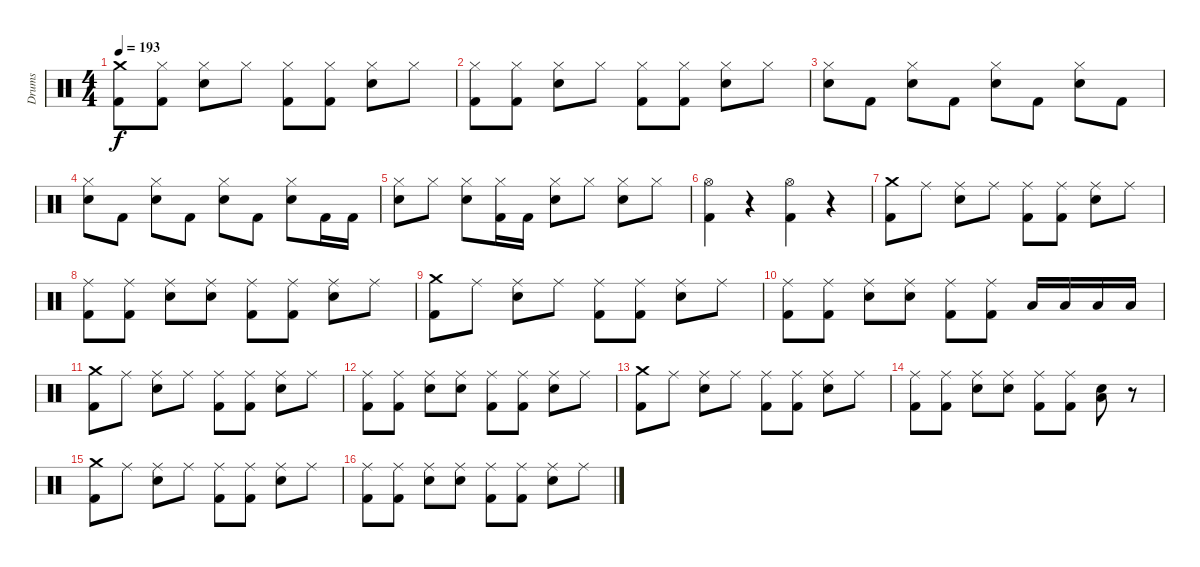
\track ("Drums" "Drums") {instrument percussion}
\staff {score}
\articulation defaults
\ts (4 4)
\tempo 193
\clef neutral
\ks c
("Crash medium (hit)" "Kick (hit) 2").8{dy f} ("Hi-Hat (closed)" "Kick (hit) 2").8 ("Hi-Hat (closed)" "Snare (hit) 2").8 "Hi-Hat (closed)".8 ("Hi-Hat (closed)" "Kick (hit) 2").8 ("Hi-Hat (closed)" "Kick (hit) 2").8 ("Hi-Hat (closed)" "Snare (hit) 2").8 "Hi-Hat (closed)".8 |
("Hi-Hat (closed)" "Kick (hit) 2").8 ("Hi-Hat (closed)" "Kick (hit) 2").8 ("Hi-Hat (closed)" "Snare (hit) 2").8 "Hi-Hat (closed)".8 ("Hi-Hat (closed)" "Kick (hit) 2").8 ("Hi-Hat (closed)" "Kick (hit) 2").8 ("Hi-Hat (closed)" "Snare (hit) 2").8 "Hi-Hat (closed)".8 |
("Hi-Hat (closed)" "Snare (hit) 2").8 "Kick (hit) 2".8 ("Hi-Hat (closed)" "Snare (hit) 2").8 "Kick (hit) 2".8 ("Hi-Hat (closed)" "Snare (hit) 2").8 "Kick (hit) 2".8 ("Hi-Hat (closed)" "Snare (hit) 2").8 "Kick (hit) 2".8 |
("Hi-Hat (closed)" "Snare (hit) 2").8 "Kick (hit) 2".8 ("Hi-Hat (closed)" "Snare (hit) 2").8 "Kick (hit) 2".8 ("Hi-Hat (closed)" "Snare (hit) 2").8 "Kick (hit) 2".8 ("Hi-Hat (closed)" "Snare (hit) 2").8 "Kick (hit) 2".16 "Kick (hit) 2".16 |
("Hi-Hat (closed)" "Snare (hit) 2").8 "Hi-Hat (closed)".8 ("Hi-Hat (closed)" "Snare (hit) 2").8 ("Hi-Hat (closed)" "Kick (hit) 2").16 "Kick (hit) 2".16 ("Hi-Hat (closed)" "Snare (hit) 2").8 "Hi-Hat (closed)".8 ("Hi-Hat (closed)" "Snare (hit) 2").8 "Hi-Hat (closed)".8 |
("Hi-Hat (open)" "Kick (hit) 2").4 r.4 ("Hi-Hat (open)" "Kick (hit) 2").4 r.4 |
("Crash medium (hit)" "Kick (hit) 2").8 "Ride (middle)".8 ("Ride (middle)" "Snare (hit) 2").8 "Ride (middle)".8 ("Ride (middle)" "Kick (hit) 2").8 ("Ride (middle)" "Kick (hit) 2").8 ("Ride (middle)" "Snare (hit) 2").8 "Ride (middle)".8 |
("Ride (middle)" "Kick (hit) 2").8 ("Ride (middle)" "Kick (hit) 2").8 ("Ride (middle)" "Snare (hit) 2").8 ("Ride (middle)" "Snare (hit) 2").8 ("Ride (middle)" "Kick (hit) 2").8 ("Ride (middle)" "Kick (hit) 2").8 ("Ride (middle)" "Snare (hit) 2").8 "Ride (middle)".8 |
("Crash medium (hit)" "Kick (hit) 2").8 "Ride (middle)".8 ("Ride (middle)" "Snare (hit) 2").8 "Ride (middle)".8 ("Ride (middle)" "Kick (hit) 2").8 ("Ride (middle)" "Kick (hit) 2").8 ("Ride (middle)" "Snare (hit) 2").8 "Ride (middle)".8 |
("Ride (middle)" "Kick (hit) 2").8 ("Ride (middle)" "Kick (hit) 2").8 ("Ride (middle)" "Snare (hit) 2").8 ("Ride (middle)" "Snare (hit) 2").8 ("Ride (middle)" "Kick (hit) 2").8 ("Ride (middle)" "Kick (hit) 2").8 "Low Floor Tom (hit)".16 "Low Floor Tom (hit)".16 "Low Floor Tom (hit)".16 "Low Floor Tom (hit)".16 |
("Crash medium (hit)" "Kick (hit) 2").8 "Ride (middle)".8 ("Ride (middle)" "Snare (hit) 2").8 "Ride (middle)".8 ("Ride (middle)" "Kick (hit) 2").8 ("Ride (middle)" "Kick (hit) 2").8 ("Ride (middle)" "Snare (hit) 2").8 "Ride (middle)".8 |
("Ride (middle)" "Kick (hit) 2").8 ("Ride (middle)" "Kick (hit) 2").8 ("Ride (middle)" "Snare (hit) 2").8 ("Ride (middle)" "Snare (hit) 2").8 ("Ride (middle)" "Kick (hit) 2").8 ("Ride (middle)" "Kick (hit) 2").8 ("Ride (middle)" "Snare (hit) 2").8 "Ride (middle)".8 |
("Crash medium (hit)" "Kick (hit) 2").8 "Ride (middle)".8 ("Ride (middle)" "Snare (hit) 2").8 "Ride (middle)".8 ("Ride (middle)" "Kick (hit) 2").8 ("Ride (middle)" "Kick (hit) 2").8 ("Ride (middle)" "Snare (hit) 2").8 "Ride (middle)".8 |
("Ride (middle)" "Kick (hit) 2").8 ("Ride (middle)" "Kick (hit) 2").8 ("Ride (middle)" "Snare (hit) 2").8 ("Ride (middle)" "Snare (hit) 2").8 ("Ride (middle)" "Kick (hit) 2").8 ("Ride (middle)" "Kick (hit) 2").8 ("Snare (hit) 2" "Low Tom (hit)").8 r.8 |
("Crash medium (hit)" "Kick (hit) 2").8 "Ride (middle)".8 ("Ride (middle)" "Snare (hit) 2").8 "Ride (middle)".8 ("Ride (middle)" "Kick (hit) 2").8 ("Ride (middle)" "Kick (hit) 2").8 ("Ride (middle)" "Snare (hit) 2").8 "Ride (middle)".8 |
("Ride (middle)" "Kick (hit) 2").8 ("Ride (middle)" "Kick (hit) 2").8 ("Ride (middle)" "Snare (hit) 2").8 ("Ride (middle)" "Snare (hit) 2").8 ("Ride (middle)" "Kick (hit) 2").8 ("Ride (middle)" "Kick (hit) 2").8 ("Ride (middle)" "Snare (hit) 2").8 "Ride (middle)".8
